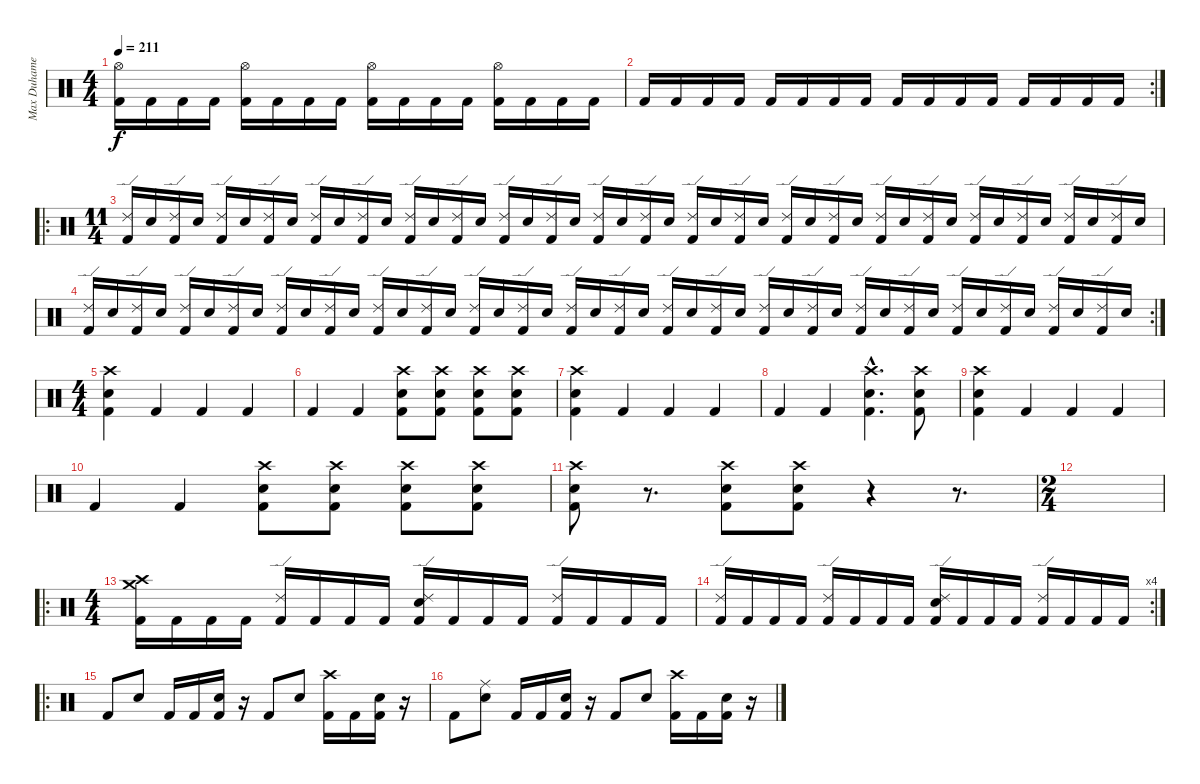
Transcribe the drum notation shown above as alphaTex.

\track ("Max Duhamel" "Max Duhame") {instrument percussion}
\staff {score}
\articulation defaults
\ts (4 4)
\tempo 211
\clef neutral
\ks c
("Hi-Hat (open)" "Kick (hit) 2").16{dy f} "Kick (hit) 2".16 "Kick (hit) 2".16 "Kick (hit) 2".16 ("Hi-Hat (open)" "Kick (hit) 2").16 "Kick (hit) 2".16 "Kick (hit) 2".16 "Kick (hit) 2".16 ("Hi-Hat (open)" "Kick (hit) 2").16 "Kick (hit) 2".16 "Kick (hit) 2".16 "Kick (hit) 2".16 ("Hi-Hat (open)" "Kick (hit) 2").16 "Kick (hit) 2".16 "Kick (hit) 2".16 "Kick (hit) 2".16 |
\rc 2 "Kick (hit) 2".16 "Kick (hit) 2".16 "Kick (hit) 2".16 "Kick (hit) 2".16 "Kick (hit) 2".16 "Kick (hit) 2".16 "Kick (hit) 2".16 "Kick (hit) 2".16 "Kick (hit) 2".16 "Kick (hit) 2".16 "Kick (hit) 2".16 "Kick (hit) 2".16 "Kick (hit) 2".16 "Kick (hit) 2".16 "Kick (hit) 2".16 "Kick (hit) 2".16
|
\ro
\ts (11 4)
("Ride (edge) 2" "Kick (hit) 2").16 "Electric Snare (hit)".16 ("Ride (edge) 2" "Kick (hit) 2").16 "Electric Snare (hit)".16 ("Ride (edge) 2" "Kick (hit) 2").16 "Electric Snare (hit)".16 ("Ride (edge) 2" "Kick (hit) 2").16 "Electric Snare (hit)".16 ("Ride (edge) 2" "Kick (hit) 2").16 "Electric Snare (hit)".16 ("Ride (edge) 2" "Kick (hit) 2").16 "Electric Snare (hit)".16 ("Ride (edge) 2" "Kick (hit) 2").16 "Electric Snare (hit)".16 ("Ride (edge) 2" "Kick (hit) 2").16 "Electric Snare (hit)".16 ("Ride (edge) 2" "Kick (hit) 2").16 "Electric Snare (hit)".16 ("Ride (edge) 2" "Kick (hit) 2").16 "Electric Snare (hit)".16 ("Ride (edge) 2" "Kick (hit) 2").16 "Electric Snare (hit)".16 ("Ride (edge) 2" "Kick (hit) 2").16 "Electric Snare (hit)".16 ("Ride (edge) 2" "Kick (hit) 2").16 "Electric Snare (hit)".16 ("Ride (edge) 2" "Kick (hit) 2").16 "Electric Snare (hit)".16 ("Ride (edge) 2" "Kick (hit) 2").16 "Electric Snare (hit)".16 ("Ride (edge) 2" "Kick (hit) 2").16 "Electric Snare (hit)".16 ("Ride (edge) 2" "Kick (hit) 2").16 "Electric Snare (hit)".16 ("Ride (edge) 2" "Kick (hit) 2").16 "Electric Snare (hit)".16 ("Ride (edge) 2" "Kick (hit) 2").16 "Electric Snare (hit)".16 ("Ride (edge) 2" "Kick (hit) 2").16 "Electric Snare (hit)".16 ("Ride (edge) 2" "Kick (hit) 2").16 "Electric Snare (hit)".16 ("Ride (edge) 2" "Kick (hit) 2").16 "Electric Snare (hit)".16 |
\rc 2
("Ride (edge) 2" "Kick (hit) 2").16 "Electric Snare (hit)".16 ("Ride (edge) 2" "Kick (hit) 2").16 "Electric Snare (hit)".16 ("Ride (edge) 2" "Kick (hit) 2").16 "Electric Snare (hit)".16 ("Ride (edge) 2" "Kick (hit) 2").16 "Electric Snare (hit)".16 ("Ride (edge) 2" "Kick (hit) 2").16 "Electric Snare (hit)".16 ("Ride (edge) 2" "Kick (hit) 2").16 "Electric Snare (hit)".16 ("Ride (edge) 2" "Kick (hit) 2").16 "Electric Snare (hit)".16 ("Ride (edge) 2" "Kick (hit) 2").16 "Electric Snare (hit)".16 ("Ride (edge) 2" "Kick (hit) 2").16 "Electric Snare (hit)".16 ("Ride (edge) 2" "Kick (hit) 2").16 "Electric Snare (hit)".16 ("Ride (edge) 2" "Kick (hit) 2").16 "Electric Snare (hit)".16 ("Ride (edge) 2" "Kick (hit) 2").16 "Electric Snare (hit)".16 ("Ride (edge) 2" "Kick (hit) 2").16 "Electric Snare (hit)".16 ("Ride (edge) 2" "Kick (hit) 2").16 "Electric Snare (hit)".16 ("Ride (edge) 2" "Kick (hit) 2").16 "Electric Snare (hit)".16 ("Ride (edge) 2" "Kick (hit) 2").16 "Electric Snare (hit)".16 ("Ride (edge) 2" "Kick (hit) 2").16 "Electric Snare (hit)".16 ("Ride (edge) 2" "Kick (hit) 2").16 "Electric Snare (hit)".16 ("Ride (edge) 2" "Kick (hit) 2").16 "Electric Snare (hit)".16 ("Ride (edge) 2" "Kick (hit) 2").16 "Electric Snare (hit)".16 ("Ride (edge) 2" "Kick (hit) 2").16 "Electric Snare (hit)".16 ("Ride (edge) 2" "Kick (hit) 2").16 "Electric Snare (hit)".16 |
\ts (4 4)
("Crash high (hit)" "Electric Snare (hit)" "Kick (hit) 2").4 "Kick (hit) 2".4 "Kick (hit) 2".4 "Kick (hit) 2".4 |
"Kick (hit) 2".4 "Kick (hit) 2".4 ("Crash high (hit)" "Electric Snare (hit)" "Kick (hit) 2").8 ("Crash high (hit)" "Electric Snare (hit)" "Kick (hit) 2").8 ("Crash high (hit)" "Electric Snare (hit)" "Kick (hit) 2").8 ("Crash high (hit)" "Electric Snare (hit)" "Kick (hit) 2").8 |
("Crash high (hit)" "Electric Snare (hit)" "Kick (hit) 2").4 "Kick (hit) 2".4 "Kick (hit) 2".4 "Kick (hit) 2".4 |
"Kick (hit) 2".4 "Kick (hit) 2".4 ("Crash high (hit)"{hac} "Electric Snare (hit)"{hac} "Kick (hit) 2"{hac}).4{d} ("Crash high (hit)" "Electric Snare (hit)" "Kick (hit) 2").8 |
("Crash high (hit)" "Electric Snare (hit)" "Kick (hit) 2").4 "Kick (hit) 2".4 "Kick (hit) 2".4 "Kick (hit) 2".4 |
"Kick (hit) 2".4 "Kick (hit) 2".4 ("Crash high (hit)" "Electric Snare (hit)" "Kick (hit) 2").8 ("Crash high (hit)" "Electric Snare (hit)" "Kick (hit) 2").8 ("Crash high (hit)" "Electric Snare (hit)" "Kick (hit) 2").8 ("Crash high (hit)" "Electric Snare (hit)" "Kick (hit) 2").8 |
("Crash high (hit)" "Electric Snare (hit)" "Kick (hit) 2").8 r.8{d} ("Crash high (hit)" "Electric Snare (hit)" "Kick (hit) 2").8 ("Crash high (hit)" "Electric Snare (hit)" "Kick (hit) 2").8 r.4 r.8{d} |
\ts (2 4)
|
\ro
\ts (4 4)
("Crash high (hit)" "Crash medium (hit)" "Kick (hit) 2").16 "Kick (hit) 2".16 "Kick (hit) 2".16 "Kick (hit) 2".16 ("Ride (edge) 2" "Kick (hit) 2").16 "Kick (hit) 2".16 "Kick (hit) 2".16 "Kick (hit) 2".16 ("Ride (edge) 2" "Electric Snare (hit)" "Kick (hit) 2").16 "Kick (hit) 2".16 "Kick (hit) 2".16 "Kick (hit) 2".16 ("Ride (edge) 2" "Kick (hit) 2").16 "Kick (hit) 2".16 "Kick (hit) 2".16 "Kick (hit) 2".16 |
\rc 4
("Ride (edge) 2" "Kick (hit) 2").16 "Kick (hit) 2".16 "Kick (hit) 2".16 "Kick (hit) 2".16 ("Ride (edge) 2" "Kick (hit) 2").16 "Kick (hit) 2".16 "Kick (hit) 2".16 "Kick (hit) 2".16 ("Ride (edge) 2" "Electric Snare (hit)" "Kick (hit) 2").16 "Kick (hit) 2".16 "Kick (hit) 2".16 "Kick (hit) 2".16 ("Ride (edge) 2" "Kick (hit) 2").16 "Kick (hit) 2".16 "Kick (hit) 2".16 "Kick (hit) 2".16 |
\ro "Kick (hit) 2".8 "Electric Snare (hit)".8 "Kick (hit) 2".16 "Kick (hit) 2".16
("Electric Snare (hit)" "Kick (hit) 2").16 r.16 "Kick (hit) 2".8 "Electric Snare (hit)".8 ("Crash high (hit)" "Kick (hit) 2").16 "Kick (hit) 2".16 ("Electric Snare (hit)" "Kick (hit) 2").16 r.16 |
"Kick (hit) 2".8 ("Ride (middle)" "Electric Snare (hit)").8 "Kick (hit) 2".16 "Kick (hit) 2".16 ("Electric Snare (hit)" "Kick (hit) 2").16 r.16 "Kick (hit) 2".8 "Electric Snare (hit)".8 ("Crash high (hit)" "Kick (hit) 2").16 "Kick (hit) 2".16 ("Electric Snare (hit)" "Kick (hit) 2").16 r.16
